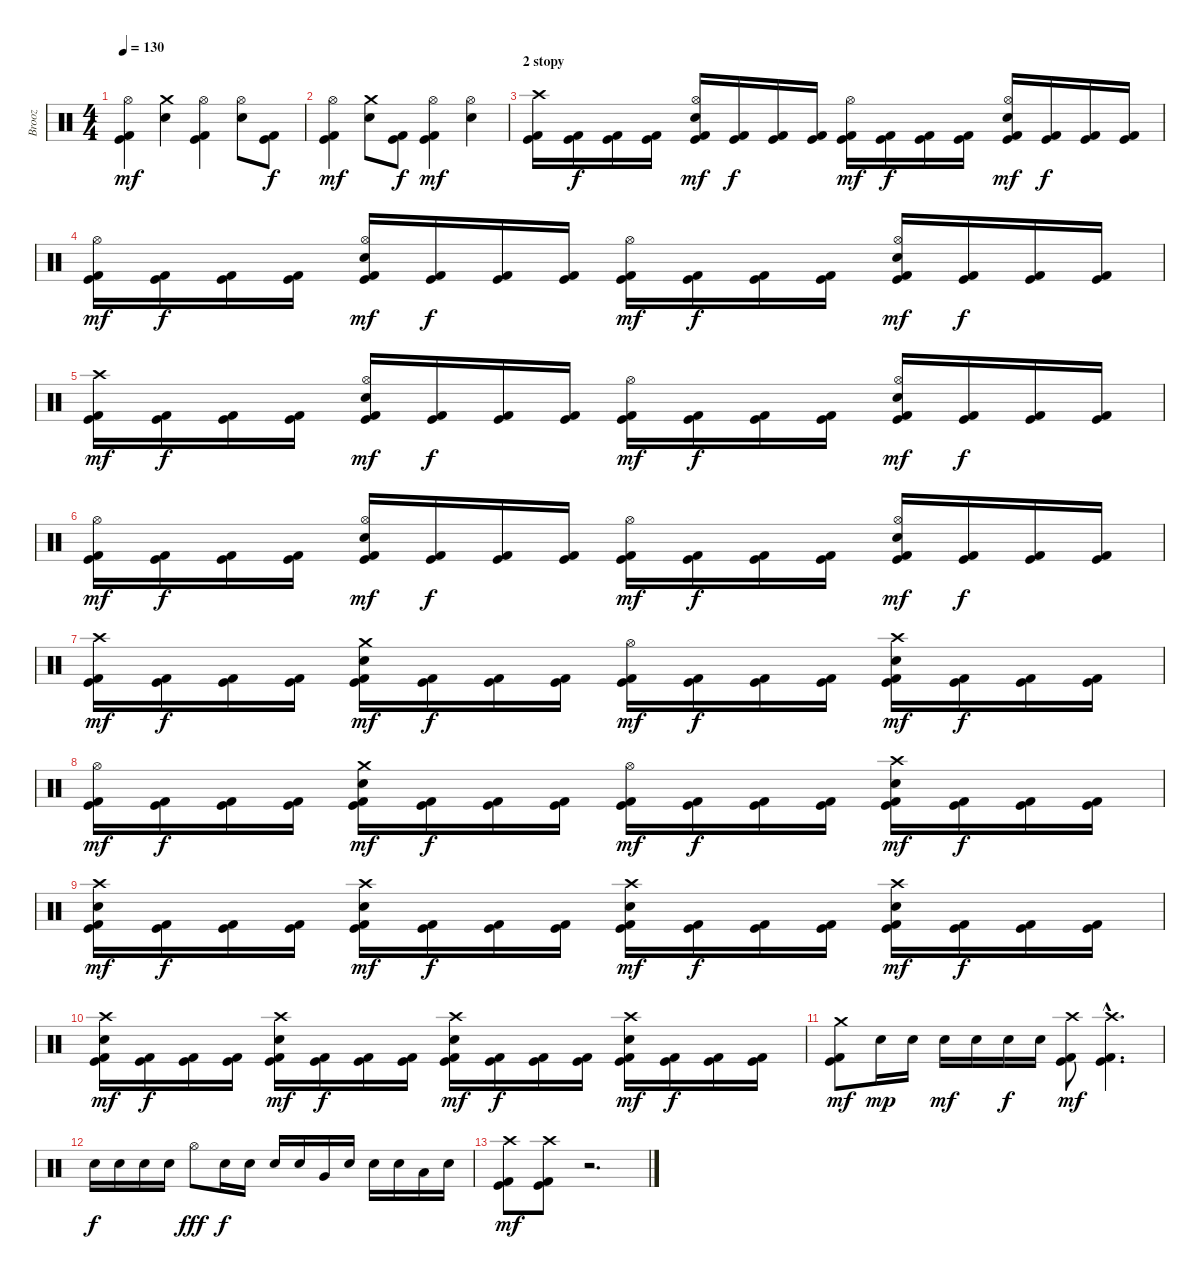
\track ("Brooz" "Brooz") {instrument percussion}
\staff {score}
\articulation defaults
\ts (4 4)
\tempo 130
\clef neutral
\ks c
("Kick (hit) 2" "Kick (hit)" "Hi-Hat (open)").4{dy mf} ("Snare (hit) 2" "Crash medium (hit)").4 ("Kick (hit) 2" "Kick (hit)" "Hi-Hat (open)").4 ("Snare (hit) 2" "Hi-Hat (open)").8 ("Kick (hit) 2" "Kick (hit)").8{dy f} |
("Kick (hit) 2" "Kick (hit)" "Hi-Hat (open)").4{dy mf} ("Snare (hit) 2" "Crash medium (hit)").8 ("Kick (hit) 2" "Kick (hit)").8{dy f} ("Kick (hit)" "Hi-Hat (open)" "Kick (hit) 2").4{dy mf} ("Snare (hit) 2" "Hi-Hat (open)").4 |
\section ("" "2 stopy")
("Kick (hit) 2" "Kick (hit)" "Crash high (hit)").16 ("Kick (hit) 2" "Kick (hit)").16{dy f} ("Kick (hit) 2" "Kick (hit)").16 ("Kick (hit) 2" "Kick (hit)").16 ("Kick (hit) 2" "Kick (hit)" "Hi-Hat (open)" "Snare (hit) 2").16{dy mf} ("Kick (hit) 2" "Kick (hit)").16{dy f} ("Kick (hit) 2" "Kick (hit)").16 ("Kick (hit) 2" "Kick (hit)").16 ("Kick (hit) 2" "Kick (hit)" "Hi-Hat (open)").16{dy mf} ("Kick (hit) 2" "Kick (hit)").16{dy f} ("Kick (hit) 2" "Kick (hit)").16 ("Kick (hit) 2" "Kick (hit)").16 ("Kick (hit) 2" "Kick (hit)" "Hi-Hat (open)" "Snare (hit) 2").16{dy mf} ("Kick (hit) 2" "Kick (hit)").16{dy f} ("Kick (hit) 2" "Kick (hit)").16 ("Kick (hit) 2" "Kick (hit)").16 |
("Kick (hit) 2" "Kick (hit)" "Hi-Hat (open)").16{dy mf} ("Kick (hit) 2" "Kick (hit)").16{dy f} ("Kick (hit) 2" "Kick (hit)").16 ("Kick (hit) 2" "Kick (hit)").16 ("Kick (hit) 2" "Kick (hit)" "Hi-Hat (open)" "Snare (hit) 2").16{dy mf} ("Kick (hit) 2" "Kick (hit)").16{dy f} ("Kick (hit) 2" "Kick (hit)").16 ("Kick (hit) 2" "Kick (hit)").16 ("Kick (hit) 2" "Kick (hit)" "Hi-Hat (open)").16{dy mf} ("Kick (hit) 2" "Kick (hit)").16{dy f} ("Kick (hit) 2" "Kick (hit)").16 ("Kick (hit) 2" "Kick (hit)").16 ("Kick (hit) 2" "Kick (hit)" "Hi-Hat (open)" "Snare (hit) 2").16{dy mf} ("Kick (hit) 2" "Kick (hit)").16{dy f} ("Kick (hit) 2" "Kick (hit)").16 ("Kick (hit) 2" "Kick (hit)").16 |
("Kick (hit) 2" "Kick (hit)" "Crash high (hit)").16{dy mf} ("Kick (hit) 2" "Kick (hit)").16{dy f} ("Kick (hit) 2" "Kick (hit)").16 ("Kick (hit) 2" "Kick (hit)").16 ("Kick (hit) 2" "Kick (hit)" "Hi-Hat (open)" "Snare (hit) 2").16{dy mf} ("Kick (hit) 2" "Kick (hit)").16{dy f} ("Kick (hit) 2" "Kick (hit)").16 ("Kick (hit) 2" "Kick (hit)").16 ("Kick (hit) 2" "Kick (hit)" "Hi-Hat (open)").16{dy mf} ("Kick (hit) 2" "Kick (hit)").16{dy f} ("Kick (hit) 2" "Kick (hit)").16 ("Kick (hit) 2" "Kick (hit)").16 ("Kick (hit) 2" "Kick (hit)" "Hi-Hat (open)" "Snare (hit) 2").16{dy mf} ("Kick (hit) 2" "Kick (hit)").16{dy f} ("Kick (hit) 2" "Kick (hit)").16 ("Kick (hit) 2" "Kick (hit)").16 |
("Kick (hit) 2" "Kick (hit)" "Hi-Hat (open)").16{dy mf} ("Kick (hit) 2" "Kick (hit)").16{dy f} ("Kick (hit) 2" "Kick (hit)").16 ("Kick (hit) 2" "Kick (hit)").16 ("Kick (hit) 2" "Kick (hit)" "Hi-Hat (open)" "Snare (hit) 2").16{dy mf} ("Kick (hit) 2" "Kick (hit)").16{dy f} ("Kick (hit) 2" "Kick (hit)").16 ("Kick (hit) 2" "Kick (hit)").16 ("Kick (hit) 2" "Kick (hit)" "Hi-Hat (open)").16{dy mf} ("Kick (hit) 2" "Kick (hit)").16{dy f} ("Kick (hit) 2" "Kick (hit)").16 ("Kick (hit) 2" "Kick (hit)").16 ("Kick (hit) 2" "Kick (hit)" "Hi-Hat (open)" "Snare (hit) 2").16{dy mf} ("Kick (hit) 2" "Kick (hit)").16{dy f} ("Kick (hit) 2" "Kick (hit)").16 ("Kick (hit) 2" "Kick (hit)").16 |
("Kick (hit) 2" "Kick (hit)" "Crash high (hit)").16{dy mf} ("Kick (hit) 2" "Kick (hit)").16{dy f} ("Kick (hit) 2" "Kick (hit)").16 ("Kick (hit) 2" "Kick (hit)").16 ("Kick (hit) 2" "Kick (hit)" "Crash medium (hit)" "Snare (hit) 2").16{dy mf} ("Kick (hit) 2" "Kick (hit)").16{dy f} ("Kick (hit) 2" "Kick (hit)").16 ("Kick (hit) 2" "Kick (hit)").16 ("Kick (hit) 2" "Kick (hit)" "Hi-Hat (open)").16{dy mf} ("Kick (hit) 2" "Kick (hit)").16{dy f} ("Kick (hit) 2" "Kick (hit)").16 ("Kick (hit) 2" "Kick (hit)").16 ("Kick (hit) 2" "Kick (hit)" "Crash high (hit)" "Snare (hit) 2").16{dy mf} ("Kick (hit) 2" "Kick (hit)").16{dy f} ("Kick (hit) 2" "Kick (hit)").16 ("Kick (hit) 2" "Kick (hit)").16 |
("Kick (hit) 2" "Kick (hit)" "Hi-Hat (open)").16{dy mf} ("Kick (hit) 2" "Kick (hit)").16{dy f} ("Kick (hit) 2" "Kick (hit)").16 ("Kick (hit) 2" "Kick (hit)").16 ("Kick (hit) 2" "Kick (hit)" "Crash medium (hit)" "Snare (hit) 2").16{dy mf} ("Kick (hit) 2" "Kick (hit)").16{dy f} ("Kick (hit) 2" "Kick (hit)").16 ("Kick (hit) 2" "Kick (hit)").16 ("Kick (hit) 2" "Kick (hit)" "Hi-Hat (open)").16{dy mf} ("Kick (hit) 2" "Kick (hit)").16{dy f} ("Kick (hit) 2" "Kick (hit)").16 ("Kick (hit) 2" "Kick (hit)").16 ("Kick (hit) 2" "Kick (hit)" "Crash high (hit)" "Snare (hit) 2").16{dy mf} ("Kick (hit) 2" "Kick (hit)").16{dy f} ("Kick (hit) 2" "Kick (hit)").16 ("Kick (hit) 2" "Kick (hit)").16 |
("Kick (hit) 2" "Kick (hit)" "Crash high (hit)" "Snare (hit) 2").16{dy mf} ("Kick (hit) 2" "Kick (hit)").16{dy f} ("Kick (hit) 2" "Kick (hit)").16 ("Kick (hit) 2" "Kick (hit)").16 ("Kick (hit) 2" "Kick (hit)" "Crash high (hit)" "Snare (hit) 2").16{dy mf} ("Kick (hit) 2" "Kick (hit)").16{dy f} ("Kick (hit) 2" "Kick (hit)").16 ("Kick (hit) 2" "Kick (hit)").16 ("Kick (hit) 2" "Kick (hit)" "Crash high (hit)" "Snare (hit) 2").16{dy mf} ("Kick (hit) 2" "Kick (hit)").16{dy f} ("Kick (hit) 2" "Kick (hit)").16 ("Kick (hit) 2" "Kick (hit)").16 ("Kick (hit) 2" "Kick (hit)" "Crash high (hit)" "Snare (hit) 2").16{dy mf} ("Kick (hit) 2" "Kick (hit)").16{dy f} ("Kick (hit) 2" "Kick (hit)").16 ("Kick (hit) 2" "Kick (hit)").16 |
("Kick (hit) 2" "Kick (hit)" "Crash high (hit)" "Snare (hit) 2").16{dy mf} ("Kick (hit) 2" "Kick (hit)").16{dy f} ("Kick (hit) 2" "Kick (hit)").16 ("Kick (hit) 2" "Kick (hit)").16 ("Kick (hit) 2" "Kick (hit)" "Crash high (hit)" "Snare (hit) 2").16{dy mf} ("Kick (hit) 2" "Kick (hit)").16{dy f} ("Kick (hit) 2" "Kick (hit)").16 ("Kick (hit) 2" "Kick (hit)").16 ("Kick (hit) 2" "Kick (hit)" "Crash high (hit)" "Snare (hit) 2").16{dy mf} ("Kick (hit) 2" "Kick (hit)").16{dy f} ("Kick (hit) 2" "Kick (hit)").16 ("Kick (hit) 2" "Kick (hit)").16 ("Kick (hit) 2" "Kick (hit)" "Crash high (hit)" "Snare (hit) 2").16{dy mf} ("Kick (hit) 2" "Kick (hit)").16{dy f} ("Kick (hit) 2" "Kick (hit)").16 ("Kick (hit) 2" "Kick (hit)").16 |
("Kick (hit)" "Kick (hit) 2" "Crash medium (hit)").8{dy mf} "Snare (hit) 2".16{dy mp} "Snare (hit) 2".16 "Snare (hit) 2".16{dy mf} "Snare (hit) 2".16 "Snare (hit) 2".16{dy f} "Snare (hit) 2".16 ("Kick (hit) 2" "Kick (hit)" "Crash high (hit)").8{dy mf} ("Kick (hit)"{hac} "Kick (hit) 2"{hac} "Crash high (hit)"{hac}).4{d} |
"Snare (hit) 2".16{dy f} "Snare (hit) 2".16 "Snare (hit) 2".16 "Snare (hit) 2".16 "Hi-Hat (open)".8{dy fff} "Snare (hit) 2".16{dy f} "Snare (hit) 2".16 "Snare (hit) 2".16 "Snare (hit) 2".16 "Very Low Tom (hit)".16 "Snare (hit) 2".16 "Snare (hit) 2".16 "Snare (hit) 2".16 "Low Tom (hit)".16 "Snare (hit) 2".16 |
("Kick (hit) 2" "Kick (hit)" "Crash high (hit)").8{dy mf} ("Kick (hit)" "Kick (hit) 2" "Crash high (hit)").8 r.2{d}
